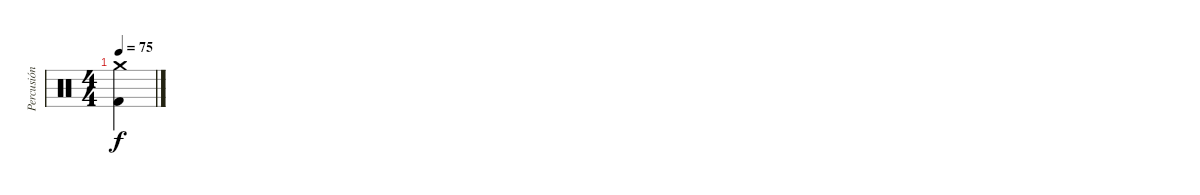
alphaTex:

\track ("Percusión" "Percusión") {instrument percussion}
\staff {score}
\articulation defaults
\ts (4 4)
\tempo 75
\clef neutral
\ks c
("Crash medium (hit)" "Kick (hit) 2").4{dy f}
